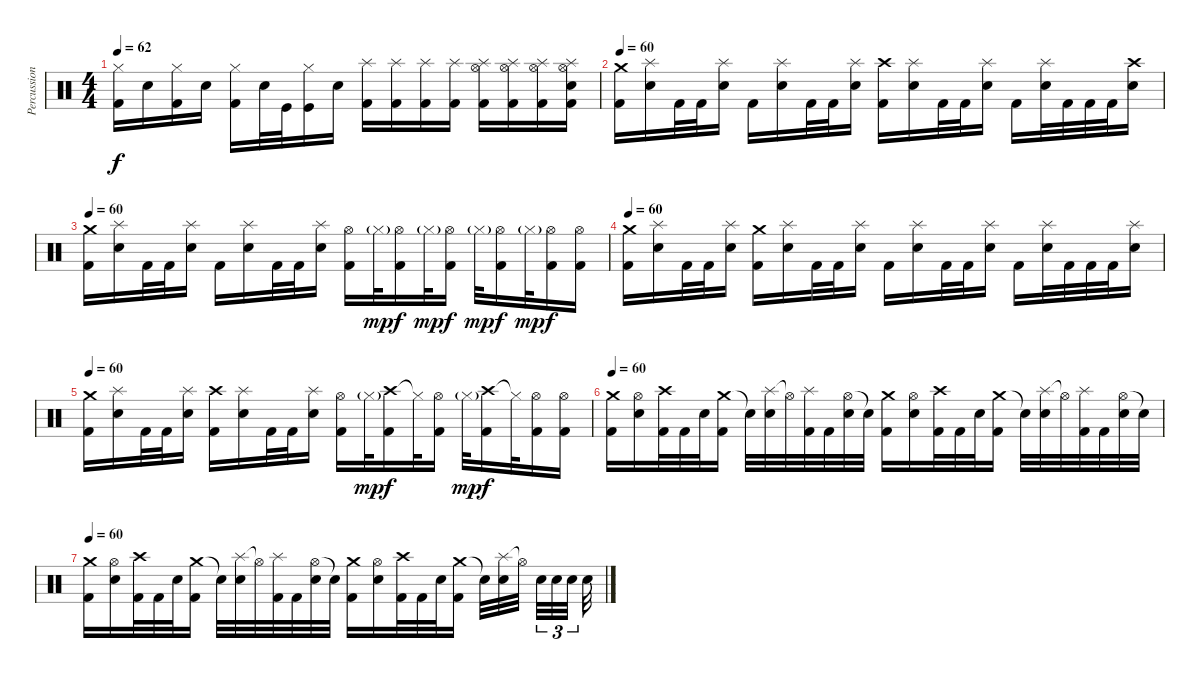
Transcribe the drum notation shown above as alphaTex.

\track ("Percussion" "Percussion") {instrument percussion}
\staff {score}
\articulation defaults
\ts (4 4)
\tempo 62
\clef neutral
\ks c
("Hi-Hat (closed)" "Kick (hit) 2").16{dy f} "Electric Snare (hit)".16 ("Hi-Hat (closed)" "Kick (hit) 2").16 "Electric Snare (hit)".16 ("Hi-Hat (closed)" "Kick (hit) 2").16 "Electric Snare (hit)".32 "Kick (hit)".32 ("Hi-Hat (closed)" "Kick (hit)").16 "Electric Snare (hit)".16 ("Splash (hit)" "Kick (hit) 2").16 ("Splash (hit)" "Kick (hit) 2").16 ("Splash (hit)" "Kick (hit) 2").16 ("Splash (hit)" "Kick (hit) 2").16 ("Splash (hit)" "Hi-Hat (open)" "Kick (hit) 2").16 ("Splash (hit)" "Hi-Hat (open)" "Kick (hit) 2").16 ("Splash (hit)" "Hi-Hat (open)" "Kick (hit) 2").16 ("Splash (hit)" "Hi-Hat (open)" "Electric Snare (hit)" "Kick (hit) 2").16 |
\tempo 60
("Crash medium (hit)" "Kick (hit) 2").16 ("Splash (hit)" "Electric Snare (hit)").16 "Kick (hit) 2".32 "Kick (hit) 2".32 ("Splash (hit)" "Electric Snare (hit)").16 "Kick (hit) 2".16 ("Splash (hit)" "Electric Snare (hit)").16 "Kick (hit) 2".32 "Kick (hit) 2".32 ("Splash (hit)" "Electric Snare (hit)").16 ("Crash high (hit)" "Kick (hit) 2").16 ("Splash (hit)" "Electric Snare (hit)").16 "Kick (hit) 2".32 "Kick (hit) 2".32 ("Splash (hit)" "Electric Snare (hit)").16 "Kick (hit) 2".16 ("Splash (hit)" "Electric Snare (hit)").32 "Kick (hit) 2".32 "Kick (hit) 2".32 "Kick (hit) 2".32 ("Crash high (hit)" "Electric Snare (hit)").16 |
\tempo 60
("Crash medium (hit)" "Kick (hit) 2").16 ("Splash (hit)" "Electric Snare (hit)").16 "Kick (hit) 2".32 "Kick (hit) 2".32 ("Splash (hit)" "Electric Snare (hit)").16 "Kick (hit) 2".16 ("Splash (hit)" "Electric Snare (hit)").16 "Kick (hit) 2".32 "Kick (hit) 2".32 ("Splash (hit)" "Electric Snare (hit)").16 ("Hi-Hat (open)" "Kick (hit) 2").16 "Hi-Hat (closed)"{g}.32{dy mp} ("Hi-Hat (open)" "Kick (hit) 2").16{dy f} "Hi-Hat (closed)"{g}.32{dy mp} ("Hi-Hat (open)" "Kick (hit) 2").16{dy f} "Hi-Hat (closed)"{g}.32{dy mp} ("Hi-Hat (open)" "Kick (hit) 2").16{dy f} "Hi-Hat (closed)"{g}.32{dy mp} ("Hi-Hat (open)" "Kick (hit) 2").16{dy f} ("Hi-Hat (open)" "Kick (hit) 2").16 |
\tempo 60
("Crash medium (hit)" "Kick (hit) 2").16 ("Splash (hit)" "Electric Snare (hit)").16 "Kick (hit) 2".32 "Kick (hit) 2".32 ("Splash (hit)" "Electric Snare (hit)").16 ("Crash medium (hit)" "Kick (hit) 2").16 ("Splash (hit)" "Electric Snare (hit)").16 "Kick (hit) 2".32 "Kick (hit) 2".32 ("Splash (hit)" "Electric Snare (hit)").16 "Kick (hit) 2".16 ("Splash (hit)" "Electric Snare (hit)").16 "Kick (hit) 2".32 "Kick (hit) 2".32 ("Splash (hit)" "Electric Snare (hit)").16 "Kick (hit) 2".16 ("Splash (hit)" "Electric Snare (hit)").32 "Kick (hit) 2".32 "Kick (hit) 2".32 "Kick (hit) 2".32 ("Splash (hit)" "Electric Snare (hit)").16 |
\tempo 60
("Crash medium (hit)" "Kick (hit) 2").16 ("Splash (hit)" "Electric Snare (hit)").16 "Kick (hit) 2".32 "Kick (hit) 2".32 ("Splash (hit)" "Electric Snare (hit)").16 ("Crash high (hit)" "Kick (hit) 2").16 ("Splash (hit)" "Electric Snare (hit)").16 "Kick (hit) 2".32 "Kick (hit) 2".32 ("Splash (hit)" "Electric Snare (hit)").16 ("Hi-Hat (open)" "Kick (hit) 2").16 "Hi-Hat (closed)"{g}.32{dy mp} ("Crash high (hit)" "Kick (hit) 2").16{dy f} "Hi-Hat (closed)"{t}.32 ("Hi-Hat (open)" "Kick (hit) 2").16 "Hi-Hat (closed)"{g}.32{dy mp} ("Crash high (hit)" "Kick (hit) 2").16{dy f} "Hi-Hat (closed)"{t}.32 ("Hi-Hat (open)" "Kick (hit) 2").16 ("Hi-Hat (open)" "Kick (hit) 2").16 |
\tempo 60
("Crash medium (hit)" "Kick (hit) 2").16 ("Hi-Hat (open)" "Electric Snare (hit)").16 ("Crash high (hit)" "Kick (hit) 2").32 "Kick (hit) 2".32 "Electric Snare (hit)".32 ("Crash medium (hit)" "Kick (hit) 2").16 "Snare (hit)"{t}.32 ("Splash (hit)" "Electric Snare (hit)").32 "Hi-Hat (open)"{t}.32 ("Splash (hit)" "Kick (hit) 2").32 "Kick (hit) 2".32 ("Hi-Hat (open)" "Electric Snare (hit)").32 "Snare (hit)"{t}.32 ("Crash medium (hit)" "Kick (hit) 2").16 ("Hi-Hat (open)" "Electric Snare (hit)").16 ("Crash high (hit)" "Kick (hit) 2").32 "Kick (hit) 2".32 "Electric Snare (hit)".32 ("Crash medium (hit)" "Kick (hit) 2").16 "Snare (hit)"{t}.32 ("Splash (hit)" "Electric Snare (hit)").32 "Hi-Hat (open)"{t}.32 ("Splash (hit)" "Kick (hit) 2").32 "Kick (hit) 2".32 ("Hi-Hat (open)" "Electric Snare (hit)").32 "Snare (hit)"{t}.32 |
\tempo 60
("Crash medium (hit)" "Kick (hit) 2").16 ("Hi-Hat (open)" "Electric Snare (hit)").16 ("Crash high (hit)" "Kick (hit) 2").32 "Kick (hit) 2".32 "Electric Snare (hit)".32 ("Crash medium (hit)" "Kick (hit) 2").16 "Snare (hit)"{t}.32 ("Splash (hit)" "Electric Snare (hit)").32 "Hi-Hat (open)"{t}.32 ("Splash (hit)" "Kick (hit) 2").32 "Kick (hit) 2".32 ("Hi-Hat (open)" "Electric Snare (hit)").32 "Snare (hit)"{t}.32 ("Crash medium (hit)" "Kick (hit) 2").16 ("Hi-Hat (open)" "Electric Snare (hit)").16 ("Crash high (hit)" "Kick (hit) 2").32 "Kick (hit) 2".32 "Electric Snare (hit)".32 ("Crash medium (hit)" "Kick (hit) 2").16 "Snare (hit)"{t}.32 ("Splash (hit)" "Electric Snare (hit)").32 "Hi-Hat (open)"{t}.32 "Electric Snare (hit)".32{tu (3 2)} "Electric Snare (hit)".32{tu (3 2)} "Electric Snare (hit)".32{tu (3 2)} "Electric Snare (hit)".32
